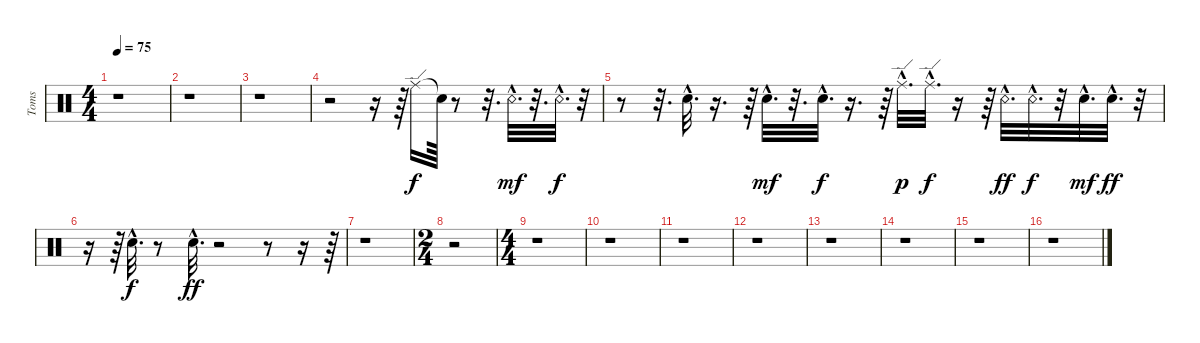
\track ("Toms" "Toms") {instrument percussion}
\staff {score}
\articulation defaults
\ts (4 4)
\tempo 75
\clef neutral
\ks c
r.1{dy ff} |
r.1 |
r.1 |
r.2 r.16 r.64 "Ride (edge)".16{dy f} "Snare (hit)"{t}.64 r.8 r.32{d} "Snare (rim shot)"{hac}.32{d dy mf} r.32{d} "Snare (rim shot)"{hac}.32{d dy f} r.32 |
r.8 r.32{d} "Snare (hit)"{hac}.32{d} r.16{d} r.64 "Snare (hit)"{hac}.32{d dy mf} r.32{d} "Snare (hit)"{hac}.32{d dy f} r.16{d} r.64 "Ride (edge)"{hac}.32{d dy p} "Ride (edge)"{hac}.32{d dy f} r.16 r.64 "Snare (rim shot)"{hac}.32{d dy ff} "Snare (rim shot)"{hac}.32{d dy f} r.32 "Snare (hit)"{hac}.32{d dy mf} "Snare (hit)"{hac}.32{d dy ff} r.32 |
r.16 r.64 "Snare (hit)"{hac}.32{d dy f} r.8 "Snare (hit)"{hac}.32{d dy ff} r.2 r.8 r.16 r.64 |
r.1 |
\ts (2 4)
r.2 |
\ts (4 4)
r.1 |
r.1 |
r.1 |
r.1 |
r.1 |
r.1 |
r.1 |
r.1
